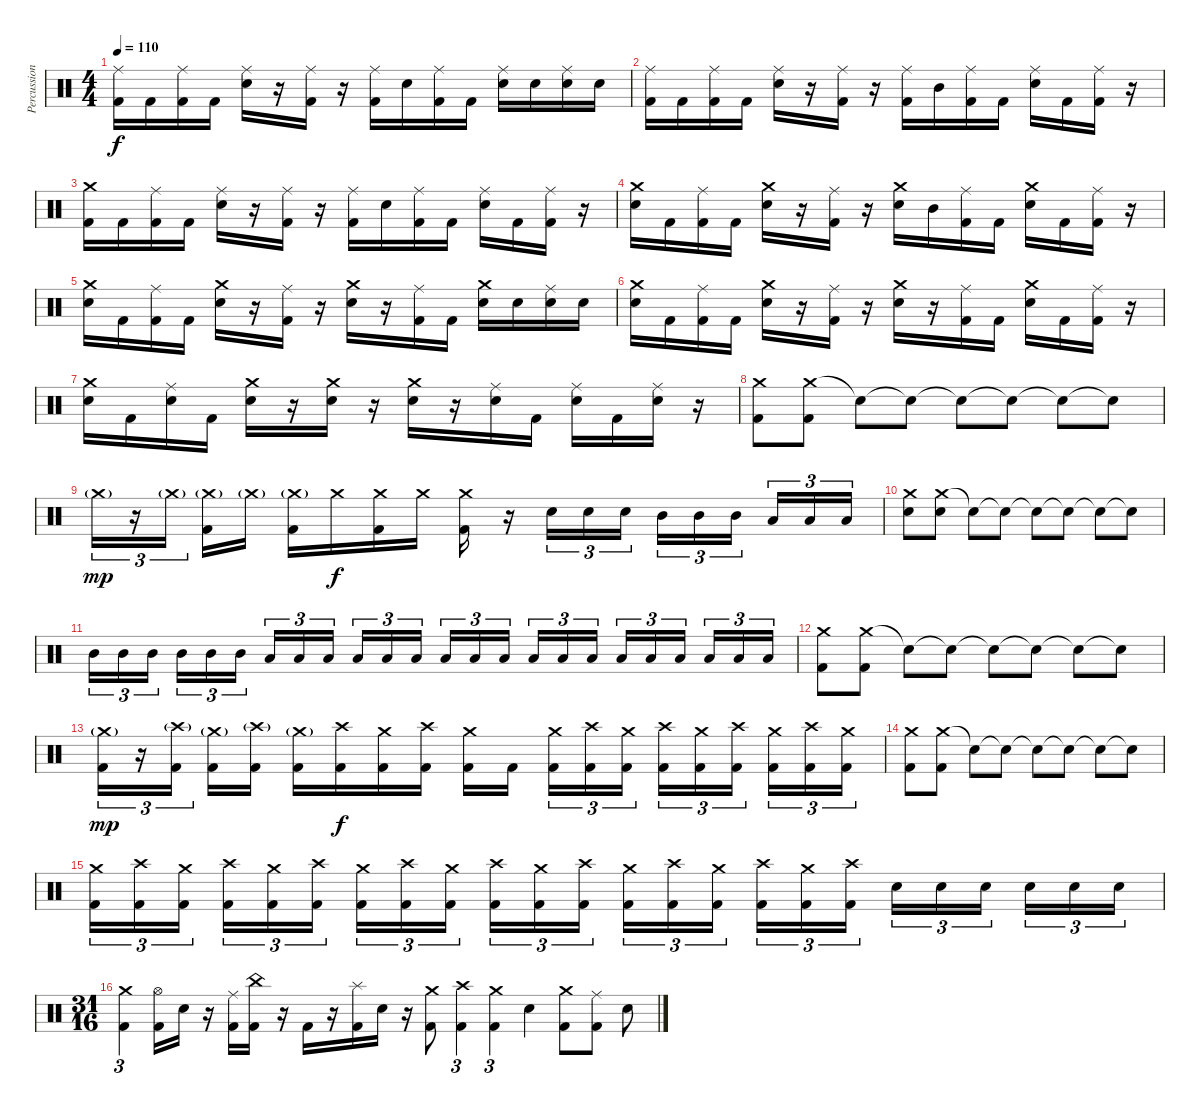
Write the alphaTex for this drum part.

\track ("Percussion" "Percussion") {instrument percussion}
\staff {score}
\articulation defaults
\ts (4 4)
\tempo 110
\clef neutral
\ks c
("Ride (middle)" "Kick (hit) 2").16{dy f} "Kick (hit) 2".16 ("Ride (middle)" "Kick (hit) 2").16 "Kick (hit) 2".16 ("Ride (middle)" "Electric Snare (hit)").16 r.16 ("Ride (middle)" "Kick (hit) 2").16 r.16 ("Ride (middle)" "Kick (hit) 2").16 "Electric Snare (hit)".16 ("Ride (middle)" "Kick (hit) 2").16 "Kick (hit) 2".16 ("Ride (middle)" "Electric Snare (hit)").16 "Electric Snare (hit)".16 ("Ride (middle)" "Electric Snare (hit)").16 "Electric Snare (hit)".16 |
("Ride (middle)" "Kick (hit) 2").16 "Kick (hit) 2".16 ("Ride (middle)" "Kick (hit) 2").16 "Kick (hit) 2".16 ("Ride (middle)" "Electric Snare (hit)").16 r.16 ("Ride (middle)" "Kick (hit) 2").16 r.16 ("Ride (middle)" "Kick (hit) 2").16 "Mid Tom (hit)".16 ("Ride (middle)" "Kick (hit) 2").16 "Kick (hit) 2".16 ("Ride (middle)" "Electric Snare (hit)").16 "Kick (hit) 2".16 ("Ride (middle)" "Kick (hit) 2").16 r.16 |
("Crash medium (hit)" "Kick (hit) 2").16 "Kick (hit) 2".16 ("Ride (middle)" "Kick (hit) 2").16 "Kick (hit) 2".16 ("Ride (middle)" "Electric Snare (hit)").16 r.16 ("Ride (middle)" "Kick (hit) 2").16 r.16 ("Ride (middle)" "Kick (hit) 2").16 "Electric Snare (hit)".16 ("Ride (middle)" "Kick (hit) 2").16 "Kick (hit) 2".16 ("Ride (middle)" "Electric Snare (hit)").16 "Kick (hit) 2".16 ("Ride (middle)" "Kick (hit) 2").16 r.16 |
("Crash medium (hit)" "Electric Snare (hit)").16 "Kick (hit) 2".16 ("Ride (middle)" "Kick (hit) 2").16 "Kick (hit) 2".16 ("Crash medium (hit)" "Electric Snare (hit)").16 r.16 ("Ride (middle)" "Kick (hit) 2").16 r.16 ("Crash medium (hit)" "Electric Snare (hit)").16 "Mid Tom (hit)".16 ("Ride (middle)" "Kick (hit) 2").16 "Kick (hit) 2".16 ("Crash medium (hit)" "Electric Snare (hit)").16 "Kick (hit) 2".16 ("Ride (middle)" "Kick (hit) 2").16 r.16 |
("Crash medium (hit)" "Electric Snare (hit)").16 "Kick (hit) 2".16 ("Ride (middle)" "Kick (hit) 2").16 "Kick (hit) 2".16 ("Crash medium (hit)" "Electric Snare (hit)").16 r.16 ("Ride (middle)" "Kick (hit) 2").16 r.16 ("Crash medium (hit)" "Electric Snare (hit)").16 r.16 ("Ride (middle)" "Kick (hit) 2").16 "Kick (hit) 2".16 ("Crash medium (hit)" "Electric Snare (hit)").16 "Electric Snare (hit)".16 ("Ride (middle)" "Electric Snare (hit)").16 "Electric Snare (hit)".16 |
("Crash medium (hit)" "Electric Snare (hit)").16 "Kick (hit) 2".16 ("Ride (middle)" "Kick (hit) 2").16 "Kick (hit) 2".16 ("Crash medium (hit)" "Electric Snare (hit)").16 r.16 ("Ride (middle)" "Kick (hit) 2").16 r.16 ("Crash medium (hit)" "Electric Snare (hit)").16 r.16 ("Ride (middle)" "Kick (hit) 2").16 "Kick (hit) 2".16 ("Crash medium (hit)" "Electric Snare (hit)").16 "Kick (hit) 2".16 ("Ride (middle)" "Kick (hit) 2").16 r.16 |
("Crash medium (hit)" "Electric Snare (hit)").16 "Kick (hit) 2".16 ("Ride (middle)" "Electric Snare (hit)").16 "Kick (hit) 2".16 ("Crash medium (hit)" "Electric Snare (hit)").16 r.16 ("Crash medium (hit)" "Electric Snare (hit)").16 r.16 ("Crash medium (hit)" "Electric Snare (hit)").16 r.16 ("Ride (middle)" "Electric Snare (hit)").16 "Kick (hit) 2".16 ("Ride (middle)" "Electric Snare (hit)").16 "Kick (hit) 2".16 ("Ride (middle)" "Electric Snare (hit)").16 r.16 |
("Crash medium (hit)" "Kick (hit) 2").8 ("Crash medium (hit)" "Kick (hit) 2").8 "Snare (hit)"{t}.8 "Snare (hit)"{t}.8 "Snare (hit)"{t}.8 "Snare (hit)"{t}.8 "Snare (hit)"{t}.8 "Snare (hit)"{t}.8 |
"Crash medium (hit)"{g}.16{tu (3 2) dy mp} r.16{tu (3 2)} "Crash medium (hit)"{g}.16{tu (3 2) beam splitsecondary} ("Kick (hit) 2" "Crash medium (hit)"{g}).16 "Crash medium (hit)"{g}.16 ("Kick (hit) 2" "Crash medium (hit)"{g}).16 "Crash medium (hit)".16{dy f} ("Kick (hit) 2" "Crash medium (hit)").16 "Crash medium (hit)".16 ("Kick (hit) 2" "Crash medium (hit)").16 r.16 "Electric Snare (hit)".16{tu (3 2)} "Electric Snare (hit)".16{tu (3 2)} "Electric Snare (hit)".16{tu (3 2)} "Mid Tom (hit)".16{tu (3 2)} "Mid Tom (hit)".16{tu (3 2)} "Mid Tom (hit)".16{tu (3 2) beam splitsecondary} "Low Tom (hit)".16{tu (3 2)} "Low Tom (hit)".16{tu (3 2)} "Low Tom (hit)".16{tu (3 2)} |
("Crash medium (hit)" "Electric Snare (hit)").8 ("Crash medium (hit)" "Electric Snare (hit)").8 "Snare (hit)"{t}.8 "Snare (hit)"{t}.8 "Snare (hit)"{t}.8 "Snare (hit)"{t}.8 "Snare (hit)"{t}.8 "Snare (hit)"{t}.8 |
"Mid Tom (hit)".16{tu (3 2)} "Mid Tom (hit)".16{tu (3 2)} "Mid Tom (hit)".16{tu (3 2) beam splitsecondary} "Mid Tom (hit)".16{tu (3 2)} "Mid Tom (hit)".16{tu (3 2)} "Mid Tom (hit)".16{tu (3 2)} "Low Tom (hit)".16{tu (3 2)} "Low Tom (hit)".16{tu (3 2)} "Low Tom (hit)".16{tu (3 2) beam splitsecondary} "Low Tom (hit)".16{tu (3 2)} "Low Tom (hit)".16{tu (3 2)} "Low Tom (hit)".16{tu (3 2)} "Low Floor Tom (hit)".16{tu (3 2)} "Low Floor Tom (hit)".16{tu (3 2)} "Low Floor Tom (hit)".16{tu (3 2) beam splitsecondary} "Low Floor Tom (hit)".16{tu (3 2)} "Low Floor Tom (hit)".16{tu (3 2)} "Low Floor Tom (hit)".16{tu (3 2)} "Low Floor Tom (hit)".16{tu (3 2)} "Low Floor Tom (hit)".16{tu (3 2)} "Low Floor Tom (hit)".16{tu (3 2) beam splitsecondary} "Low Floor Tom (hit)".16{tu (3 2)} "Low Floor Tom (hit)".16{tu (3 2)} "Low Floor Tom (hit)".16{tu (3 2)} |
("Crash medium (hit)" "Kick (hit) 2").8 ("Crash medium (hit)" "Kick (hit) 2").8 "Snare (hit)"{t}.8 "Snare (hit)"{t}.8 "Snare (hit)"{t}.8 "Snare (hit)"{t}.8 "Snare (hit)"{t}.8 "Snare (hit)"{t}.8 |
("Kick (hit) 2" "Crash medium (hit)"{g}).16{tu (3 2) dy mp} r.16{tu (3 2)} ("Kick (hit) 2" "Crash high (hit)"{g}).16{tu (3 2) beam splitsecondary} ("Kick (hit) 2" "Crash medium (hit)"{g}).16 ("Kick (hit) 2" "Crash high (hit)"{g}).16 ("Kick (hit) 2" "Crash medium (hit)"{g}).16 ("Kick (hit) 2" "Crash high (hit)").16{dy f} ("Kick (hit) 2" "Crash medium (hit)").16 ("Kick (hit) 2" "Crash high (hit)").16 ("Kick (hit) 2" "Crash medium (hit)").16 "Kick (hit) 2".16{beam splitsecondary} ("Kick (hit) 2" "Crash medium (hit)").16{tu (3 2)} ("Kick (hit) 2" "Crash high (hit)").16{tu (3 2)} ("Kick (hit) 2" "Crash medium (hit)").16{tu (3 2)} ("Kick (hit) 2" "Crash high (hit)").16{tu (3 2)} ("Kick (hit) 2" "Crash medium (hit)").16{tu (3 2)} ("Kick (hit) 2" "Crash high (hit)").16{tu (3 2) beam splitsecondary} ("Kick (hit) 2" "Crash medium (hit)").16{tu (3 2)} ("Kick (hit) 2" "Crash high (hit)").16{tu (3 2)} ("Kick (hit) 2" "Crash medium (hit)").16{tu (3 2)} |
("Crash medium (hit)" "Kick (hit) 2").8 ("Crash medium (hit)" "Kick (hit) 2").8 "Snare (hit)"{t}.8 "Snare (hit)"{t}.8 "Snare (hit)"{t}.8 "Snare (hit)"{t}.8 "Snare (hit)"{t}.8 "Snare (hit)"{t}.8 |
("Crash medium (hit)" "Kick (hit) 2").16{tu (3 2)} ("Crash high (hit)" "Kick (hit) 2").16{tu (3 2)} ("Crash medium (hit)" "Kick (hit) 2").16{tu (3 2) beam splitsecondary} ("Crash high (hit)" "Kick (hit) 2").16{tu (3 2)} ("Crash medium (hit)" "Kick (hit) 2").16{tu (3 2)} ("Crash high (hit)" "Kick (hit) 2").16{tu (3 2)} ("Crash medium (hit)" "Kick (hit) 2").16{tu (3 2)} ("Crash high (hit)" "Kick (hit) 2").16{tu (3 2)} ("Crash medium (hit)" "Kick (hit) 2").16{tu (3 2) beam splitsecondary} ("Crash high (hit)" "Kick (hit) 2").16{tu (3 2)} ("Crash medium (hit)" "Kick (hit) 2").16{tu (3 2)} ("Crash high (hit)" "Kick (hit) 2").16{tu (3 2)} ("Crash medium (hit)" "Kick (hit) 2").16{tu (3 2)} ("Crash high (hit)" "Kick (hit) 2").16{tu (3 2)} ("Crash medium (hit)" "Kick (hit) 2").16{tu (3 2) beam splitsecondary} ("Crash high (hit)" "Kick (hit) 2").16{tu (3 2)} ("Crash medium (hit)" "Kick (hit) 2").16{tu (3 2)} ("Crash high (hit)" "Kick (hit) 2").16{tu (3 2)} "Electric Snare (hit)".16{tu (3 2)} "Electric Snare (hit)".16{tu (3 2)} "Electric Snare (hit)".16{tu (3 2) beam splitsecondary} "Electric Snare (hit)".16{tu (3 2)} "Electric Snare (hit)".16{tu (3 2)} "Electric Snare (hit)".16{tu (3 2)} |
\ts (31 16)
("Crash medium (hit)" "Kick (hit) 2").4{tu (3 2)} ("Hi-Hat (open)" "Kick (hit) 2").16 "Electric Snare (hit)".16 r.16 ("Ride (middle)" "Kick (hit) 2").16 ("China (hit)" "Kick (hit) 2").16 r.16 "Kick (hit) 2".16 r.16 ("Splash (hit)" "Kick (hit) 2").16 "Electric Snare (hit)".16 r.16 ("Crash medium (hit)" "Kick (hit) 2").8 ("Crash high (hit)" "Kick (hit) 2").4{tu (3 2)} ("Crash medium (hit)" "Kick (hit) 2").4{tu (3 2)} "Electric Snare (hit)".4 ("Crash medium (hit)" "Kick (hit) 2").8 ("Ride (middle)" "Kick (hit) 2").8 "Electric Snare (hit)".8
